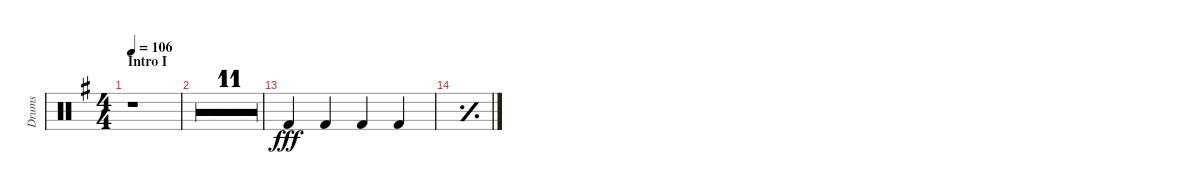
\defaultSystemsLayout 4
\bracketExtendMode groupsimilarinstruments
\otherSystemsTrackNameOrientation horizontal
\track ("Drumkit" "Drums") {multiBarRest instrument percussion}
\staff {score}
\articulation defaults
\ts (4 4)
\section ("" "Intro I")
\tempo 106
\clef neutral
\ks g
r.1{dy fff} |
r.1 |
r.1 |
r.1 |
r.1 |
r.1 |
r.1 |
r.1 |
r.1 |
r.1 |
r.1 |
r.1 |
"Kick (hit) 2"{acc forcenatural}.4 "Kick (hit) 2"{acc forcenatural}.4 "Kick (hit) 2"{acc forcenatural}.4 "Kick (hit) 2"{acc forcenatural}.4 |
\simile simple
